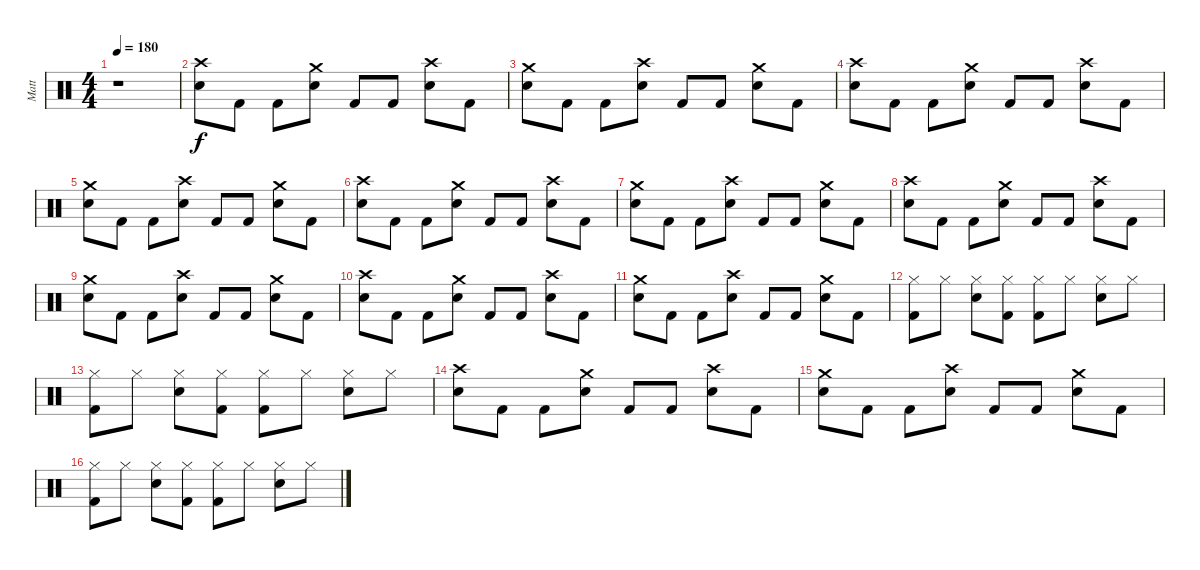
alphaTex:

\track ("Matt" "Matt") {instrument percussion}
\staff {score}
\articulation defaults
\ts (4 4)
\tempo 180
\clef neutral
\ks c
r.1{dy f} |
("Crash high (hit)" "Snare (hit) 2").8 "Kick (hit) 2".8 "Kick (hit) 2".8 ("Crash medium (hit)" "Snare (hit) 2").8 "Kick (hit) 2".8 "Kick (hit) 2".8 ("Crash high (hit)" "Snare (hit) 2").8 "Kick (hit) 2".8 |
("Crash medium (hit)" "Snare (hit) 2").8 "Kick (hit) 2".8 "Kick (hit) 2".8 ("Crash high (hit)" "Snare (hit) 2").8 "Kick (hit) 2".8 "Kick (hit) 2".8 ("Crash medium (hit)" "Snare (hit) 2").8 "Kick (hit) 2".8 |
("Crash high (hit)" "Snare (hit) 2").8 "Kick (hit) 2".8 "Kick (hit) 2".8 ("Crash medium (hit)" "Snare (hit) 2").8 "Kick (hit) 2".8 "Kick (hit) 2".8 ("Crash high (hit)" "Snare (hit) 2").8 "Kick (hit) 2".8 |
("Crash medium (hit)" "Snare (hit) 2").8 "Kick (hit) 2".8 "Kick (hit) 2".8 ("Crash high (hit)" "Snare (hit) 2").8 "Kick (hit) 2".8 "Kick (hit) 2".8 ("Crash medium (hit)" "Snare (hit) 2").8 "Kick (hit) 2".8 |
("Crash high (hit)" "Snare (hit) 2").8 "Kick (hit) 2".8 "Kick (hit) 2".8 ("Crash medium (hit)" "Snare (hit) 2").8 "Kick (hit) 2".8 "Kick (hit) 2".8 ("Crash high (hit)" "Snare (hit) 2").8 "Kick (hit) 2".8 |
("Crash medium (hit)" "Snare (hit) 2").8 "Kick (hit) 2".8 "Kick (hit) 2".8 ("Crash high (hit)" "Snare (hit) 2").8 "Kick (hit) 2".8 "Kick (hit) 2".8 ("Crash medium (hit)" "Snare (hit) 2").8 "Kick (hit) 2".8 |
("Crash high (hit)" "Snare (hit) 2").8 "Kick (hit) 2".8 "Kick (hit) 2".8 ("Crash medium (hit)" "Snare (hit) 2").8 "Kick (hit) 2".8 "Kick (hit) 2".8 ("Crash high (hit)" "Snare (hit) 2").8 "Kick (hit) 2".8 |
("Crash medium (hit)" "Snare (hit) 2").8 "Kick (hit) 2".8 "Kick (hit) 2".8 ("Crash high (hit)" "Snare (hit) 2").8 "Kick (hit) 2".8 "Kick (hit) 2".8 ("Crash medium (hit)" "Snare (hit) 2").8 "Kick (hit) 2".8 |
("Crash high (hit)" "Snare (hit) 2").8 "Kick (hit) 2".8 "Kick (hit) 2".8 ("Crash medium (hit)" "Snare (hit) 2").8 "Kick (hit) 2".8 "Kick (hit) 2".8 ("Crash high (hit)" "Snare (hit) 2").8 "Kick (hit) 2".8 |
("Crash medium (hit)" "Snare (hit) 2").8 "Kick (hit) 2".8 "Kick (hit) 2".8 ("Crash high (hit)" "Snare (hit) 2").8 "Kick (hit) 2".8 "Kick (hit) 2".8 ("Crash medium (hit)" "Snare (hit) 2").8 "Kick (hit) 2".8 |
("Hi-Hat (closed)" "Kick (hit) 2").8 "Hi-Hat (closed)".8 ("Hi-Hat (closed)" "Snare (hit) 2").8 ("Hi-Hat (closed)" "Kick (hit) 2").8 ("Hi-Hat (closed)" "Kick (hit) 2").8 "Hi-Hat (closed)".8 ("Hi-Hat (closed)" "Snare (hit) 2").8 "Hi-Hat (closed)".8 |
("Hi-Hat (closed)" "Kick (hit) 2").8 "Hi-Hat (closed)".8 ("Hi-Hat (closed)" "Snare (hit) 2").8 ("Hi-Hat (closed)" "Kick (hit) 2").8 ("Hi-Hat (closed)" "Kick (hit) 2").8 "Hi-Hat (closed)".8 ("Hi-Hat (closed)" "Snare (hit) 2").8 "Hi-Hat (closed)".8 |
("Crash high (hit)" "Snare (hit) 2").8 "Kick (hit) 2".8 "Kick (hit) 2".8 ("Crash medium (hit)" "Snare (hit) 2").8 "Kick (hit) 2".8 "Kick (hit) 2".8 ("Crash high (hit)" "Snare (hit) 2").8 "Kick (hit) 2".8 |
("Crash medium (hit)" "Snare (hit) 2").8 "Kick (hit) 2".8 "Kick (hit) 2".8 ("Crash high (hit)" "Snare (hit) 2").8 "Kick (hit) 2".8 "Kick (hit) 2".8 ("Crash medium (hit)" "Snare (hit) 2").8 "Kick (hit) 2".8 |
("Hi-Hat (closed)" "Kick (hit) 2").8 "Hi-Hat (closed)".8 ("Hi-Hat (closed)" "Snare (hit) 2").8 ("Hi-Hat (closed)" "Kick (hit) 2").8 ("Hi-Hat (closed)" "Kick (hit) 2").8 "Hi-Hat (closed)".8 ("Hi-Hat (closed)" "Snare (hit) 2").8 "Hi-Hat (closed)".8
